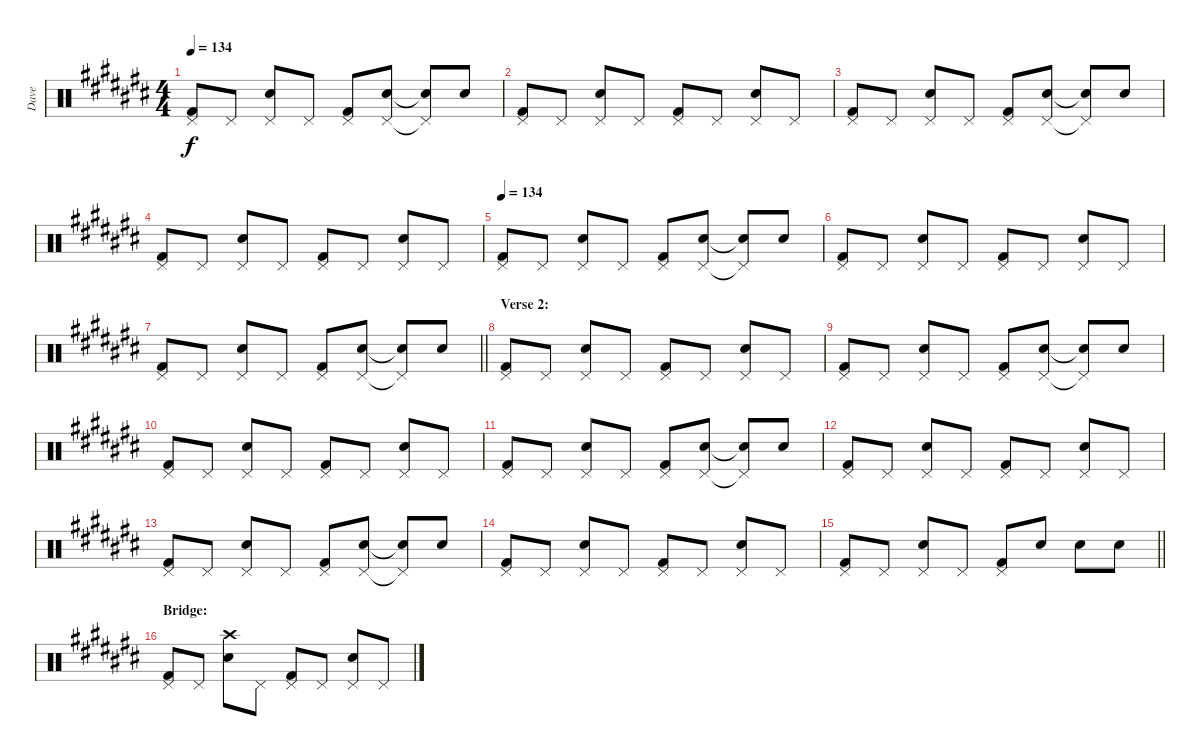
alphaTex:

\track ("Dave" "Dave") {instrument percussion}
\staff {score}
\articulation defaults
\ts (4 4)
\tempo 134
\clef neutral
\ks c#
("Pedal Hi-Hat (hit)" "Kick (hit) 2").8{dy f} "Pedal Hi-Hat (hit)".8 ("Pedal Hi-Hat (hit)" "Snare (hit) 2").8 "Pedal Hi-Hat (hit)".8 ("Pedal Hi-Hat (hit)" "Kick (hit) 2").8 ("Pedal Hi-Hat (hit)" "Snare (hit) 2").8 ("Pedal Hi-Hat (hit)"{t} "Snare (hit)"{t}).8 "Snare (hit) 2".8 |
("Pedal Hi-Hat (hit)" "Kick (hit) 2").8 "Pedal Hi-Hat (hit)".8 ("Pedal Hi-Hat (hit)" "Snare (hit) 2").8 "Pedal Hi-Hat (hit)".8 ("Pedal Hi-Hat (hit)" "Kick (hit) 2").8 "Pedal Hi-Hat (hit)".8 ("Pedal Hi-Hat (hit)" "Snare (hit) 2").8 "Pedal Hi-Hat (hit)".8 |
("Pedal Hi-Hat (hit)" "Kick (hit) 2").8 "Pedal Hi-Hat (hit)".8 ("Pedal Hi-Hat (hit)" "Snare (hit) 2").8 "Pedal Hi-Hat (hit)".8 ("Pedal Hi-Hat (hit)" "Kick (hit) 2").8 ("Pedal Hi-Hat (hit)" "Snare (hit) 2").8 ("Pedal Hi-Hat (hit)"{t} "Snare (hit)"{t}).8 "Snare (hit) 2".8 |
("Pedal Hi-Hat (hit)" "Kick (hit) 2").8 "Pedal Hi-Hat (hit)".8 ("Pedal Hi-Hat (hit)" "Snare (hit) 2").8 "Pedal Hi-Hat (hit)".8 ("Pedal Hi-Hat (hit)" "Kick (hit) 2").8 "Pedal Hi-Hat (hit)".8 ("Pedal Hi-Hat (hit)" "Snare (hit) 2").8 "Pedal Hi-Hat (hit)".8 |
\tempo 134
("Pedal Hi-Hat (hit)" "Kick (hit) 2").8 "Pedal Hi-Hat (hit)".8 ("Pedal Hi-Hat (hit)" "Snare (hit) 2").8 "Pedal Hi-Hat (hit)".8 ("Pedal Hi-Hat (hit)" "Kick (hit) 2").8 ("Pedal Hi-Hat (hit)" "Snare (hit) 2").8 ("Pedal Hi-Hat (hit)"{t} "Snare (hit)"{t}).8 "Snare (hit) 2".8 |
("Pedal Hi-Hat (hit)" "Kick (hit) 2").8 "Pedal Hi-Hat (hit)".8 ("Pedal Hi-Hat (hit)" "Snare (hit) 2").8 "Pedal Hi-Hat (hit)".8 ("Pedal Hi-Hat (hit)" "Kick (hit) 2").8 "Pedal Hi-Hat (hit)".8 ("Pedal Hi-Hat (hit)" "Snare (hit) 2").8 "Pedal Hi-Hat (hit)".8 |
\barLineRight lightlight
("Pedal Hi-Hat (hit)" "Kick (hit) 2").8 "Pedal Hi-Hat (hit)".8 ("Pedal Hi-Hat (hit)" "Snare (hit) 2").8 "Pedal Hi-Hat (hit)".8 ("Pedal Hi-Hat (hit)" "Kick (hit) 2").8 ("Pedal Hi-Hat (hit)" "Snare (hit) 2").8 ("Pedal Hi-Hat (hit)"{t} "Snare (hit)"{t}).8 "Snare (hit) 2".8 |
\section ("" "Verse 2:")
("Pedal Hi-Hat (hit)" "Kick (hit) 2").8 "Pedal Hi-Hat (hit)".8 ("Pedal Hi-Hat (hit)" "Snare (hit) 2").8 "Pedal Hi-Hat (hit)".8 ("Pedal Hi-Hat (hit)" "Kick (hit) 2").8 "Pedal Hi-Hat (hit)".8 ("Pedal Hi-Hat (hit)" "Snare (hit) 2").8 "Pedal Hi-Hat (hit)".8 |
("Pedal Hi-Hat (hit)" "Kick (hit) 2").8 "Pedal Hi-Hat (hit)".8 ("Pedal Hi-Hat (hit)" "Snare (hit) 2").8 "Pedal Hi-Hat (hit)".8 ("Pedal Hi-Hat (hit)" "Kick (hit) 2").8 ("Pedal Hi-Hat (hit)" "Snare (hit) 2").8 ("Pedal Hi-Hat (hit)"{t} "Snare (hit)"{t}).8 "Snare (hit) 2".8 |
("Pedal Hi-Hat (hit)" "Kick (hit) 2").8 "Pedal Hi-Hat (hit)".8 ("Pedal Hi-Hat (hit)" "Snare (hit) 2").8 "Pedal Hi-Hat (hit)".8 ("Pedal Hi-Hat (hit)" "Kick (hit) 2").8 "Pedal Hi-Hat (hit)".8 ("Pedal Hi-Hat (hit)" "Snare (hit) 2").8 "Pedal Hi-Hat (hit)".8 |
("Pedal Hi-Hat (hit)" "Kick (hit) 2").8 "Pedal Hi-Hat (hit)".8 ("Pedal Hi-Hat (hit)" "Snare (hit) 2").8 "Pedal Hi-Hat (hit)".8 ("Pedal Hi-Hat (hit)" "Kick (hit) 2").8 ("Pedal Hi-Hat (hit)" "Snare (hit) 2").8 ("Pedal Hi-Hat (hit)"{t} "Snare (hit)"{t}).8 "Snare (hit) 2".8 |
("Pedal Hi-Hat (hit)" "Kick (hit) 2").8 "Pedal Hi-Hat (hit)".8 ("Pedal Hi-Hat (hit)" "Snare (hit) 2").8 "Pedal Hi-Hat (hit)".8 ("Pedal Hi-Hat (hit)" "Kick (hit) 2").8 "Pedal Hi-Hat (hit)".8 ("Pedal Hi-Hat (hit)" "Snare (hit) 2").8 "Pedal Hi-Hat (hit)".8 |
("Pedal Hi-Hat (hit)" "Kick (hit) 2").8 "Pedal Hi-Hat (hit)".8 ("Pedal Hi-Hat (hit)" "Snare (hit) 2").8 "Pedal Hi-Hat (hit)".8 ("Pedal Hi-Hat (hit)" "Kick (hit) 2").8 ("Pedal Hi-Hat (hit)" "Snare (hit) 2").8 ("Pedal Hi-Hat (hit)"{t} "Snare (hit)"{t}).8 "Snare (hit) 2".8 |
("Pedal Hi-Hat (hit)" "Kick (hit) 2").8 "Pedal Hi-Hat (hit)".8 ("Pedal Hi-Hat (hit)" "Snare (hit) 2").8 "Pedal Hi-Hat (hit)".8 ("Pedal Hi-Hat (hit)" "Kick (hit) 2").8 "Pedal Hi-Hat (hit)".8 ("Pedal Hi-Hat (hit)" "Snare (hit) 2").8 "Pedal Hi-Hat (hit)".8 |
\barLineRight lightlight
("Pedal Hi-Hat (hit)" "Kick (hit) 2").8 "Pedal Hi-Hat (hit)".8 ("Pedal Hi-Hat (hit)" "Snare (hit) 2").8 "Pedal Hi-Hat (hit)".8 ("Pedal Hi-Hat (hit)" "Kick (hit) 2").8 "Snare (hit) 2".8 "Snare (hit) 2".8 "Snare (hit) 2".8 |
\section ("" "Bridge:")
("Pedal Hi-Hat (hit)" "Kick (hit) 2").8 "Pedal Hi-Hat (hit)".8 ("Crash high (hit)" "Snare (hit) 2").8 "Pedal Hi-Hat (hit)".8 ("Pedal Hi-Hat (hit)" "Kick (hit) 2").8 "Pedal Hi-Hat (hit)".8 ("Pedal Hi-Hat (hit)" "Snare (hit) 2").8 "Pedal Hi-Hat (hit)".8
